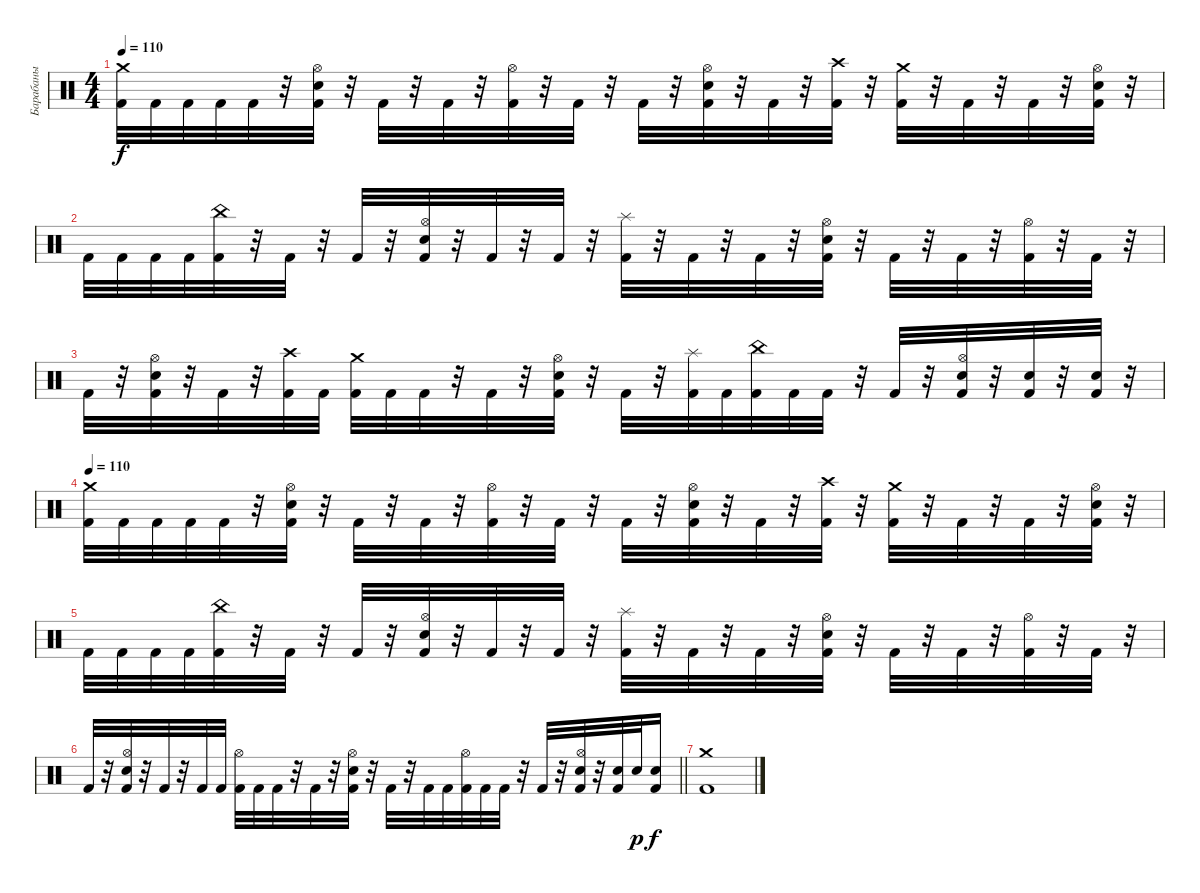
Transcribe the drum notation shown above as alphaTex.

\track ("Барабаны" "Барабаны") {instrument percussion}
\staff {score}
\articulation defaults
\ts (4 4)
\tempo 110
\clef neutral
\ks c
("Crash medium (hit)" "Kick (hit) 2").32{dy f} "Kick (hit) 2".32 "Kick (hit) 2".32 "Kick (hit) 2".32 "Kick (hit) 2".32 r.32 ("Hi-Hat (open)" "Electric Snare (hit)" "Kick (hit) 2").32 r.32 "Kick (hit) 2".32 r.32 "Kick (hit) 2".32 r.32 ("Hi-Hat (open)" "Kick (hit) 2").32 r.32 "Kick (hit) 2".32 r.32 "Kick (hit) 2".32 r.32 ("Hi-Hat (open)" "Electric Snare (hit)" "Kick (hit) 2").32 r.32 "Kick (hit) 2".32 r.32 ("Crash high (hit)" "Kick (hit) 2").32 r.32 ("Crash medium (hit)" "Kick (hit) 2").32 r.32 "Kick (hit) 2".32 r.32 "Kick (hit) 2".32 r.32 ("Hi-Hat (open)" "Electric Snare (hit)" "Kick (hit) 2").32 r.32 |
"Kick (hit) 2".32 "Kick (hit) 2".32 "Kick (hit) 2".32 "Kick (hit) 2".32 ("China (hit)" "Kick (hit) 2").32 r.32 "Kick (hit) 2".32 r.32 "Kick (hit) 2".32 r.32 ("Hi-Hat (open)" "Electric Snare (hit)" "Kick (hit) 2").32 r.32 "Kick (hit) 2".32 r.32 "Kick (hit) 2".32 r.32 ("Splash (hit)" "Kick (hit) 2").32 r.32 "Kick (hit) 2".32 r.32 "Kick (hit) 2".32 r.32 ("Hi-Hat (open)" "Electric Snare (hit)" "Kick (hit) 2").32 r.32 "Kick (hit) 2".32 r.32 "Kick (hit) 2".32 r.32 ("Hi-Hat (open)" "Kick (hit) 2").32 r.32 "Kick (hit) 2".32 r.32 |
"Kick (hit) 2".32 r.32 ("Hi-Hat (open)" "Electric Snare (hit)" "Kick (hit) 2").32 r.32 "Kick (hit) 2".32 r.32 ("Crash high (hit)" "Kick (hit) 2").32 "Kick (hit) 2".32 ("Crash medium (hit)" "Kick (hit) 2").32 "Kick (hit) 2".32 "Kick (hit) 2".32 r.32 "Kick (hit) 2".32 r.32 ("Hi-Hat (open)" "Electric Snare (hit)" "Kick (hit) 2").32 r.32 "Kick (hit) 2".32 r.32 ("Splash (hit)" "Kick (hit) 2").32 "Kick (hit) 2".32 ("China (hit)" "Kick (hit) 2").32 "Kick (hit) 2".32 "Kick (hit) 2".32 r.32 "Kick (hit) 2".32 r.32 ("Hi-Hat (open)" "Electric Snare (hit)" "Kick (hit) 2").32 r.32 ("Electric Snare (hit)" "Kick (hit) 2").32 r.32 ("Electric Snare (hit)" "Kick (hit) 2").32 r.32 |
\tempo 110
("Crash medium (hit)" "Kick (hit) 2").32 "Kick (hit) 2".32 "Kick (hit) 2".32 "Kick (hit) 2".32 "Kick (hit) 2".32 r.32 ("Hi-Hat (open)" "Electric Snare (hit)" "Kick (hit) 2").32 r.32 "Kick (hit) 2".32 r.32 "Kick (hit) 2".32 r.32 ("Hi-Hat (open)" "Kick (hit) 2").32 r.32 "Kick (hit) 2".32 r.32 "Kick (hit) 2".32 r.32 ("Hi-Hat (open)" "Electric Snare (hit)" "Kick (hit) 2").32 r.32 "Kick (hit) 2".32 r.32 ("Crash high (hit)" "Kick (hit) 2").32 r.32 ("Crash medium (hit)" "Kick (hit) 2").32 r.32 "Kick (hit) 2".32 r.32 "Kick (hit) 2".32 r.32 ("Hi-Hat (open)" "Electric Snare (hit)" "Kick (hit) 2").32 r.32 |
"Kick (hit) 2".32 "Kick (hit) 2".32 "Kick (hit) 2".32 "Kick (hit) 2".32 ("China (hit)" "Kick (hit) 2").32 r.32 "Kick (hit) 2".32 r.32 "Kick (hit) 2".32 r.32 ("Hi-Hat (open)" "Electric Snare (hit)" "Kick (hit) 2").32 r.32 "Kick (hit) 2".32 r.32 "Kick (hit) 2".32 r.32 ("Splash (hit)" "Kick (hit) 2").32 r.32 "Kick (hit) 2".32 r.32 "Kick (hit) 2".32 r.32 ("Hi-Hat (open)" "Electric Snare (hit)" "Kick (hit) 2").32 r.32 "Kick (hit) 2".32 r.32 "Kick (hit) 2".32 r.32 ("Hi-Hat (open)" "Kick (hit) 2").32 r.32 "Kick (hit) 2".32 r.32 |
\barLineRight lightlight "Kick (hit) 2".32
r.32 ("Hi-Hat (open)" "Electric Snare (hit)" "Kick (hit) 2").32 r.32 "Kick (hit) 2".32 r.32 "Kick (hit) 2".32 "Kick (hit) 2".32 ("Hi-Hat (open)" "Kick (hit) 2").32 "Kick (hit) 2".32 "Kick (hit) 2".32 r.32 "Kick (hit) 2".32 r.32 ("Hi-Hat (open)" "Electric Snare (hit)" "Kick (hit) 2").32 r.32 "Kick (hit) 2".32 r.32 "Kick (hit) 2".32 "Kick (hit) 2".32 ("Hi-Hat (open)" "Kick (hit) 2").32 "Kick (hit) 2".32 "Kick (hit) 2".32 r.32 "Kick (hit) 2".32 r.32 ("Hi-Hat (open)" "Electric Snare (hit)" "Kick (hit) 2").32 r.32 ("Electric Snare (hit)" "Kick (hit) 2").32 "Electric Snare (hit)".32{dy p} ("Electric Snare (hit)" "Kick (hit) 2").16{dy f} |
("Crash medium (hit)" "Kick (hit) 2").1
